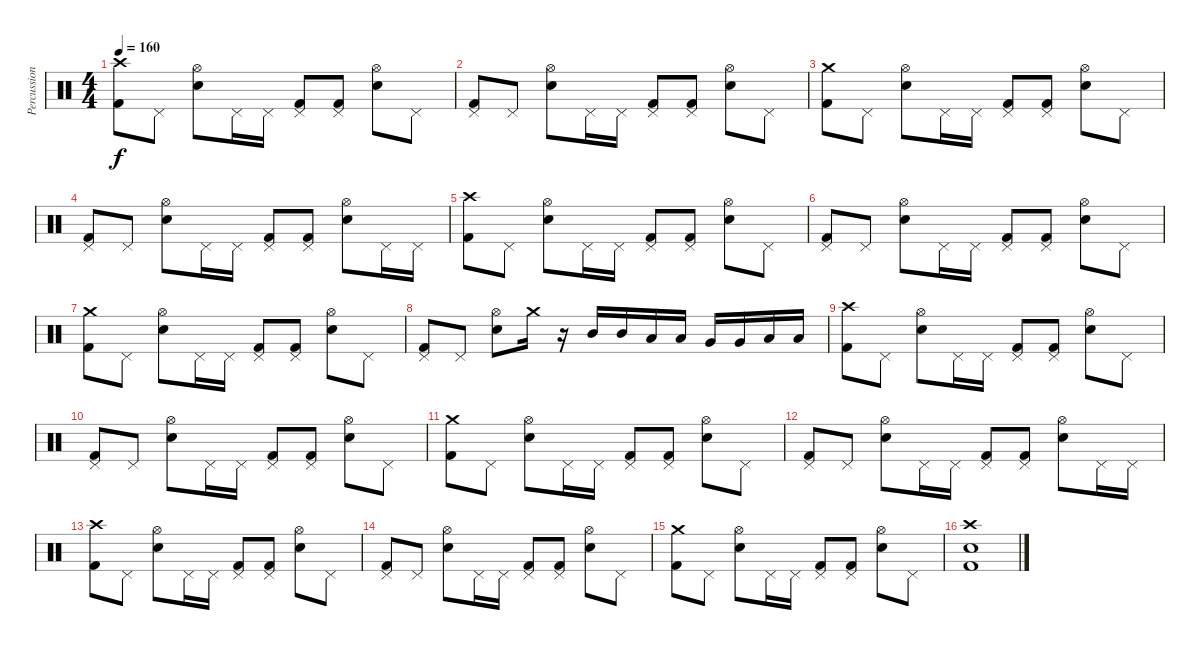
\track ("Percussion" "Percussion") {instrument percussion}
\staff {score}
\articulation defaults
\ts (4 4)
\tempo 160
\clef neutral
\ks c
("Crash high (hit)" "Kick (hit) 2").8{dy f} "Pedal Hi-Hat (hit)".8 ("Hi-Hat (open)" "Electric Snare (hit)").8 "Pedal Hi-Hat (hit)".16 "Pedal Hi-Hat (hit)".16 ("Pedal Hi-Hat (hit)" "Kick (hit) 2").8 ("Pedal Hi-Hat (hit)" "Kick (hit) 2").8 ("Hi-Hat (open)" "Electric Snare (hit)").8 "Pedal Hi-Hat (hit)".8 |
("Pedal Hi-Hat (hit)" "Kick (hit) 2").8 "Pedal Hi-Hat (hit)".8 ("Hi-Hat (open)" "Electric Snare (hit)").8 "Pedal Hi-Hat (hit)".16 "Pedal Hi-Hat (hit)".16 ("Pedal Hi-Hat (hit)" "Kick (hit) 2").8 ("Pedal Hi-Hat (hit)" "Kick (hit) 2").8 ("Hi-Hat (open)" "Electric Snare (hit)").8 "Pedal Hi-Hat (hit)".8 |
("Crash medium (hit)" "Kick (hit) 2").8 "Pedal Hi-Hat (hit)".8 ("Hi-Hat (open)" "Electric Snare (hit)").8 "Pedal Hi-Hat (hit)".16 "Pedal Hi-Hat (hit)".16 ("Pedal Hi-Hat (hit)" "Kick (hit) 2").8 ("Pedal Hi-Hat (hit)" "Kick (hit) 2").8 ("Hi-Hat (open)" "Electric Snare (hit)").8 "Pedal Hi-Hat (hit)".8 |
("Pedal Hi-Hat (hit)" "Kick (hit) 2").8 "Pedal Hi-Hat (hit)".8 ("Hi-Hat (open)" "Electric Snare (hit)").8 "Pedal Hi-Hat (hit)".16 "Pedal Hi-Hat (hit)".16 ("Pedal Hi-Hat (hit)" "Kick (hit) 2").8 ("Pedal Hi-Hat (hit)" "Kick (hit) 2").8 ("Hi-Hat (open)" "Electric Snare (hit)").8 "Pedal Hi-Hat (hit)".16 "Pedal Hi-Hat (hit)".16 |
("Crash high (hit)" "Kick (hit) 2").8 "Pedal Hi-Hat (hit)".8 ("Hi-Hat (open)" "Electric Snare (hit)").8 "Pedal Hi-Hat (hit)".16 "Pedal Hi-Hat (hit)".16 ("Pedal Hi-Hat (hit)" "Kick (hit) 2").8 ("Pedal Hi-Hat (hit)" "Kick (hit) 2").8 ("Hi-Hat (open)" "Electric Snare (hit)").8 "Pedal Hi-Hat (hit)".8 |
("Pedal Hi-Hat (hit)" "Kick (hit) 2").8 "Pedal Hi-Hat (hit)".8 ("Hi-Hat (open)" "Electric Snare (hit)").8 "Pedal Hi-Hat (hit)".16 "Pedal Hi-Hat (hit)".16 ("Pedal Hi-Hat (hit)" "Kick (hit) 2").8 ("Pedal Hi-Hat (hit)" "Kick (hit) 2").8 ("Hi-Hat (open)" "Electric Snare (hit)").8 "Pedal Hi-Hat (hit)".8 |
("Crash medium (hit)" "Kick (hit) 2").8 "Pedal Hi-Hat (hit)".8 ("Hi-Hat (open)" "Electric Snare (hit)").8 "Pedal Hi-Hat (hit)".16 "Pedal Hi-Hat (hit)".16 ("Pedal Hi-Hat (hit)" "Kick (hit) 2").8 ("Pedal Hi-Hat (hit)" "Kick (hit) 2").8 ("Hi-Hat (open)" "Electric Snare (hit)").8 "Pedal Hi-Hat (hit)".8 |
("Pedal Hi-Hat (hit)" "Kick (hit) 2").8 "Pedal Hi-Hat (hit)".8 ("Hi-Hat (open)" "Electric Snare (hit)").8 "Crash medium (hit)".16 r.16 "Mid Tom (hit)".16 "Mid Tom (hit)".16 "Low Tom (hit)".16 "Low Tom (hit)".16 "Very Low Tom (hit)".16 "Very Low Tom (hit)".16 "Low Floor Tom (hit)".16 "Low Floor Tom (hit)".16 |
("Crash high (hit)" "Kick (hit) 2").8 "Pedal Hi-Hat (hit)".8 ("Hi-Hat (open)" "Electric Snare (hit)").8 "Pedal Hi-Hat (hit)".16 "Pedal Hi-Hat (hit)".16 ("Pedal Hi-Hat (hit)" "Kick (hit) 2").8 ("Pedal Hi-Hat (hit)" "Kick (hit) 2").8 ("Hi-Hat (open)" "Electric Snare (hit)").8 "Pedal Hi-Hat (hit)".8 |
("Pedal Hi-Hat (hit)" "Kick (hit) 2").8 "Pedal Hi-Hat (hit)".8 ("Hi-Hat (open)" "Electric Snare (hit)").8 "Pedal Hi-Hat (hit)".16 "Pedal Hi-Hat (hit)".16 ("Pedal Hi-Hat (hit)" "Kick (hit) 2").8 ("Pedal Hi-Hat (hit)" "Kick (hit) 2").8 ("Hi-Hat (open)" "Electric Snare (hit)").8 "Pedal Hi-Hat (hit)".8 |
("Crash medium (hit)" "Kick (hit) 2").8 "Pedal Hi-Hat (hit)".8 ("Hi-Hat (open)" "Electric Snare (hit)").8 "Pedal Hi-Hat (hit)".16 "Pedal Hi-Hat (hit)".16 ("Pedal Hi-Hat (hit)" "Kick (hit) 2").8 ("Pedal Hi-Hat (hit)" "Kick (hit) 2").8 ("Hi-Hat (open)" "Electric Snare (hit)").8 "Pedal Hi-Hat (hit)".8 |
("Pedal Hi-Hat (hit)" "Kick (hit) 2").8 "Pedal Hi-Hat (hit)".8 ("Hi-Hat (open)" "Electric Snare (hit)").8 "Pedal Hi-Hat (hit)".16 "Pedal Hi-Hat (hit)".16 ("Pedal Hi-Hat (hit)" "Kick (hit) 2").8 ("Pedal Hi-Hat (hit)" "Kick (hit) 2").8 ("Hi-Hat (open)" "Electric Snare (hit)").8 "Pedal Hi-Hat (hit)".16 "Pedal Hi-Hat (hit)".16 |
("Crash high (hit)" "Kick (hit) 2").8 "Pedal Hi-Hat (hit)".8 ("Hi-Hat (open)" "Electric Snare (hit)").8 "Pedal Hi-Hat (hit)".16 "Pedal Hi-Hat (hit)".16 ("Pedal Hi-Hat (hit)" "Kick (hit) 2").8 ("Pedal Hi-Hat (hit)" "Kick (hit) 2").8 ("Hi-Hat (open)" "Electric Snare (hit)").8 "Pedal Hi-Hat (hit)".8 |
("Pedal Hi-Hat (hit)" "Kick (hit) 2").8 "Pedal Hi-Hat (hit)".8 ("Hi-Hat (open)" "Electric Snare (hit)").8 "Pedal Hi-Hat (hit)".16 "Pedal Hi-Hat (hit)".16 ("Pedal Hi-Hat (hit)" "Kick (hit) 2").8 ("Pedal Hi-Hat (hit)" "Kick (hit) 2").8 ("Hi-Hat (open)" "Electric Snare (hit)").8 "Pedal Hi-Hat (hit)".8 |
("Crash medium (hit)" "Kick (hit) 2").8 "Pedal Hi-Hat (hit)".8 ("Hi-Hat (open)" "Electric Snare (hit)").8 "Pedal Hi-Hat (hit)".16 "Pedal Hi-Hat (hit)".16 ("Pedal Hi-Hat (hit)" "Kick (hit) 2").8 ("Pedal Hi-Hat (hit)" "Kick (hit) 2").8 ("Hi-Hat (open)" "Electric Snare (hit)").8 "Pedal Hi-Hat (hit)".8 |
("Crash high (hit)" "Electric Snare (hit)" "Kick (hit) 2").1
